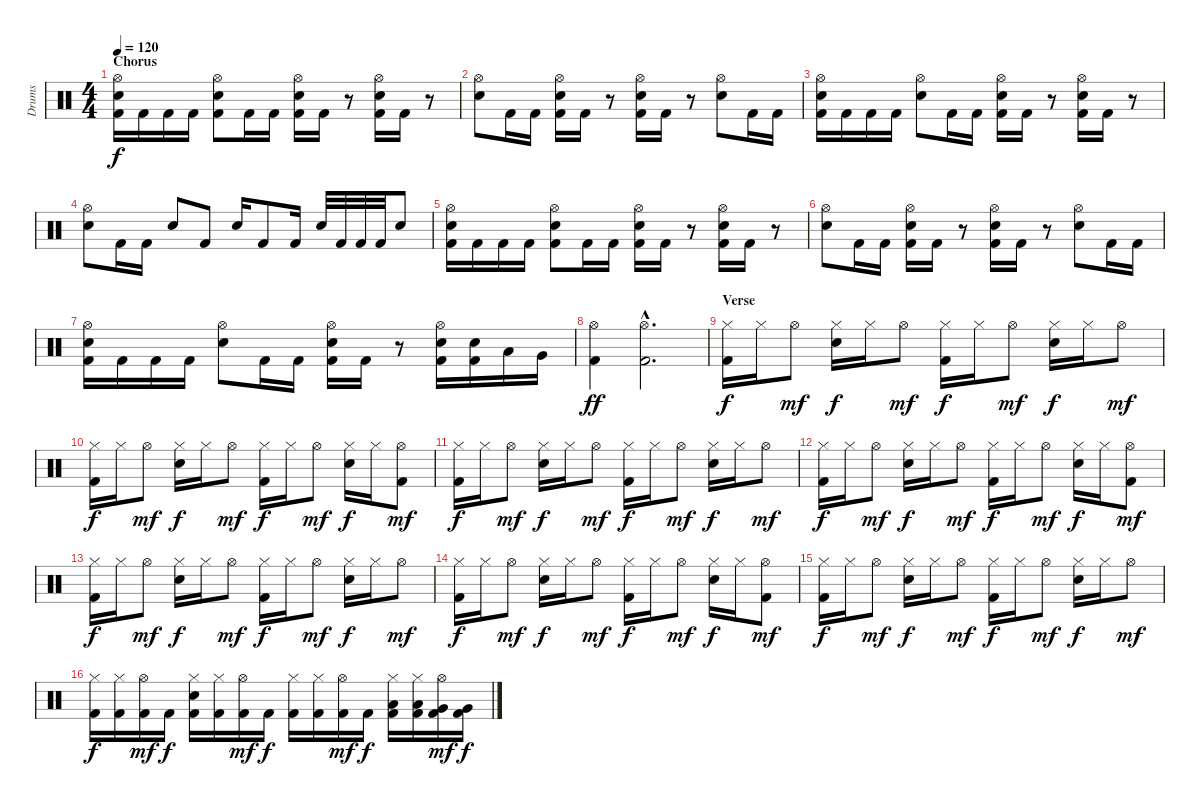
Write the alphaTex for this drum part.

\track ("Drums" "Drums") {instrument percussion}
\staff {score}
\articulation defaults
\ts (4 4)
\section ("" "Chorus")
\tempo 120
\clef neutral
\ks c
("Hi-Hat (open)" "Electric Snare (hit)" "Kick (hit) 2").16{dy f} "Kick (hit) 2".16 "Kick (hit) 2".16 "Kick (hit) 2".16 ("Hi-Hat (open)" "Electric Snare (hit)" "Kick (hit) 2").8 "Kick (hit) 2".16 "Kick (hit) 2".16 ("Hi-Hat (open)" "Electric Snare (hit)" "Kick (hit) 2").16 "Kick (hit) 2".16 r.8 ("Hi-Hat (open)" "Electric Snare (hit)" "Kick (hit) 2").16 "Kick (hit) 2".16 r.8 |
("Hi-Hat (open)" "Electric Snare (hit)").8 "Kick (hit) 2".16 "Kick (hit) 2".16 ("Hi-Hat (open)" "Electric Snare (hit)" "Kick (hit) 2").16 "Kick (hit) 2".16 r.8 ("Hi-Hat (open)" "Electric Snare (hit)" "Kick (hit) 2").16 "Kick (hit) 2".16 r.8 ("Hi-Hat (open)" "Electric Snare (hit)").8 "Kick (hit) 2".16 "Kick (hit) 2".16 |
("Hi-Hat (open)" "Electric Snare (hit)" "Kick (hit) 2").16 "Kick (hit) 2".16 "Kick (hit) 2".16 "Kick (hit) 2".16 ("Hi-Hat (open)" "Electric Snare (hit)").8 "Kick (hit) 2".16 "Kick (hit) 2".16 ("Hi-Hat (open)" "Electric Snare (hit)" "Kick (hit) 2").16 "Kick (hit) 2".16 r.8 ("Hi-Hat (open)" "Electric Snare (hit)" "Kick (hit) 2").16 "Kick (hit) 2".16 r.8 |
("Hi-Hat (open)" "Electric Snare (hit)").8 "Kick (hit) 2".16 "Kick (hit) 2".16 "Electric Snare (hit)".8 "Kick (hit) 2".8 "Electric Snare (hit)".16 "Kick (hit) 2".8 "Kick (hit) 2".16 "Electric Snare (hit)".32 "Kick (hit) 2".32 "Kick (hit) 2".32 "Kick (hit) 2".32 "Electric Snare (hit)".8 |
("Hi-Hat (open)" "Electric Snare (hit)" "Kick (hit) 2").16 "Kick (hit) 2".16 "Kick (hit) 2".16 "Kick (hit) 2".16 ("Hi-Hat (open)" "Electric Snare (hit)" "Kick (hit) 2").8 "Kick (hit) 2".16 "Kick (hit) 2".16 ("Hi-Hat (open)" "Electric Snare (hit)" "Kick (hit) 2").16 "Kick (hit) 2".16 r.8 ("Hi-Hat (open)" "Electric Snare (hit)" "Kick (hit) 2").16 "Kick (hit) 2".16 r.8 |
("Hi-Hat (open)" "Electric Snare (hit)").8 "Kick (hit) 2".16 "Kick (hit) 2".16 ("Hi-Hat (open)" "Electric Snare (hit)" "Kick (hit) 2").16 "Kick (hit) 2".16 r.8 ("Hi-Hat (open)" "Electric Snare (hit)" "Kick (hit) 2").16 "Kick (hit) 2".16 r.8 ("Hi-Hat (open)" "Electric Snare (hit)").8 "Kick (hit) 2".16 "Kick (hit) 2".16 |
("Hi-Hat (open)" "Electric Snare (hit)" "Kick (hit) 2").16 "Kick (hit) 2".16 "Kick (hit) 2".16 "Kick (hit) 2".16 ("Hi-Hat (open)" "Electric Snare (hit)").8 "Kick (hit) 2".16 "Kick (hit) 2".16 ("Hi-Hat (open)" "Electric Snare (hit)" "Kick (hit) 2").16 "Kick (hit) 2".16 r.8 ("Hi-Hat (open)" "Electric Snare (hit)" "Kick (hit) 2").16 ("Electric Snare (hit)" "Kick (hit) 2").16 "Low Tom (hit)".16 "Very Low Tom (hit)".16 |
("Hi-Hat (open)" "Kick (hit) 2").4{dy ff} ("Hi-Hat (open)"{hac} "Kick (hit) 2"{hac}).2{d} |
\section ("" "Verse")
("Hi-Hat (closed)" "Kick (hit) 2").16{dy f} "Hi-Hat (closed)".16 "Hi-Hat (open)".8{dy mf} ("Hi-Hat (closed)" "Electric Snare (hit)").16{dy f} "Hi-Hat (closed)".16 "Hi-Hat (open)".8{dy mf} ("Hi-Hat (closed)" "Kick (hit) 2").16{dy f} "Hi-Hat (closed)".16 "Hi-Hat (open)".8{dy mf} ("Hi-Hat (closed)" "Electric Snare (hit)").16{dy f} "Hi-Hat (closed)".16 "Hi-Hat (open)".8{dy mf} |
("Hi-Hat (closed)" "Kick (hit) 2").16{dy f} "Hi-Hat (closed)".16 "Hi-Hat (open)".8{dy mf} ("Hi-Hat (closed)" "Electric Snare (hit)").16{dy f} "Hi-Hat (closed)".16 "Hi-Hat (open)".8{dy mf} ("Hi-Hat (closed)" "Kick (hit) 2").16{dy f} "Hi-Hat (closed)".16 "Hi-Hat (open)".8{dy mf} ("Hi-Hat (closed)" "Electric Snare (hit)").16{dy f} "Hi-Hat (closed)".16 ("Hi-Hat (open)" "Kick (hit) 2").8{dy mf} |
("Hi-Hat (closed)" "Kick (hit) 2").16{dy f} "Hi-Hat (closed)".16 "Hi-Hat (open)".8{dy mf} ("Hi-Hat (closed)" "Electric Snare (hit)").16{dy f} "Hi-Hat (closed)".16 "Hi-Hat (open)".8{dy mf} ("Hi-Hat (closed)" "Kick (hit) 2").16{dy f} "Hi-Hat (closed)".16 "Hi-Hat (open)".8{dy mf} ("Hi-Hat (closed)" "Electric Snare (hit)").16{dy f} "Hi-Hat (closed)".16 "Hi-Hat (open)".8{dy mf} |
("Hi-Hat (closed)" "Kick (hit) 2").16{dy f} "Hi-Hat (closed)".16 "Hi-Hat (open)".8{dy mf} ("Hi-Hat (closed)" "Electric Snare (hit)").16{dy f} "Hi-Hat (closed)".16 "Hi-Hat (open)".8{dy mf} ("Hi-Hat (closed)" "Kick (hit) 2").16{dy f} "Hi-Hat (closed)".16 "Hi-Hat (open)".8{dy mf} ("Hi-Hat (closed)" "Electric Snare (hit)").16{dy f} "Hi-Hat (closed)".16 ("Hi-Hat (open)" "Kick (hit) 2").8{dy mf} |
("Hi-Hat (closed)" "Kick (hit) 2").16{dy f} "Hi-Hat (closed)".16 "Hi-Hat (open)".8{dy mf} ("Hi-Hat (closed)" "Electric Snare (hit)").16{dy f} "Hi-Hat (closed)".16 "Hi-Hat (open)".8{dy mf} ("Hi-Hat (closed)" "Kick (hit) 2").16{dy f} "Hi-Hat (closed)".16 "Hi-Hat (open)".8{dy mf} ("Hi-Hat (closed)" "Electric Snare (hit)").16{dy f} "Hi-Hat (closed)".16 "Hi-Hat (open)".8{dy mf} |
("Hi-Hat (closed)" "Kick (hit) 2").16{dy f} "Hi-Hat (closed)".16 "Hi-Hat (open)".8{dy mf} ("Hi-Hat (closed)" "Electric Snare (hit)").16{dy f} "Hi-Hat (closed)".16 "Hi-Hat (open)".8{dy mf} ("Hi-Hat (closed)" "Kick (hit) 2").16{dy f} "Hi-Hat (closed)".16 "Hi-Hat (open)".8{dy mf} ("Hi-Hat (closed)" "Electric Snare (hit)").16{dy f} "Hi-Hat (closed)".16 ("Hi-Hat (open)" "Kick (hit) 2").8{dy mf} |
("Hi-Hat (closed)" "Kick (hit) 2").16{dy f} "Hi-Hat (closed)".16 "Hi-Hat (open)".8{dy mf} ("Hi-Hat (closed)" "Electric Snare (hit)").16{dy f} "Hi-Hat (closed)".16 "Hi-Hat (open)".8{dy mf} ("Hi-Hat (closed)" "Kick (hit) 2").16{dy f} "Hi-Hat (closed)".16 "Hi-Hat (open)".8{dy mf} ("Hi-Hat (closed)" "Electric Snare (hit)").16{dy f} "Hi-Hat (closed)".16 "Hi-Hat (open)".8{dy mf} |
("Hi-Hat (closed)" "Kick (hit) 2").16{dy f} ("Hi-Hat (closed)" "Kick (hit) 2").16 ("Hi-Hat (open)" "Kick (hit) 2").16{dy mf} "Kick (hit) 2".16{dy f} ("Hi-Hat (closed)" "Electric Snare (hit)" "Kick (hit) 2").16 ("Hi-Hat (closed)" "Kick (hit) 2").16 ("Hi-Hat (open)" "Kick (hit) 2").16{dy mf} "Kick (hit) 2".16{dy f} ("Hi-Hat (closed)" "Kick (hit) 2").16 ("Hi-Hat (closed)" "Kick (hit) 2").16 ("Hi-Hat (open)" "Kick (hit) 2").16{dy mf} "Kick (hit) 2".16{dy f} ("Hi-Hat (closed)" "Low Tom (hit)" "Kick (hit) 2").16 ("Hi-Hat (closed)" "Low Tom (hit)" "Kick (hit) 2").16 ("Hi-Hat (open)" "Very Low Tom (hit)" "Kick (hit) 2").16{dy mf} ("Very Low Tom (hit)" "Kick (hit) 2").16{dy f}
